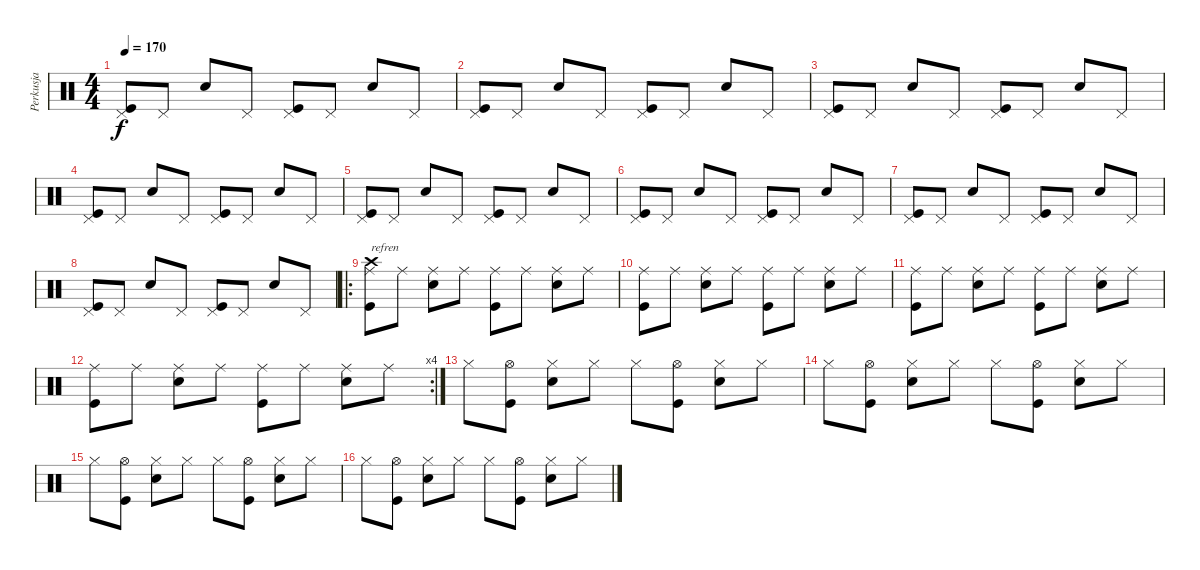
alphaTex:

\track ("Perkusja" "Perkusja") {instrument percussion}
\staff {score}
\articulation defaults
\ts (4 4)
\tempo 170
\clef neutral
\ks c
("Pedal Hi-Hat (hit)" "Kick (hit)").8{dy f} "Pedal Hi-Hat (hit)".8 "Electric Snare (hit)".8 "Pedal Hi-Hat (hit)".8 ("Pedal Hi-Hat (hit)" "Kick (hit)").8 "Pedal Hi-Hat (hit)".8 "Electric Snare (hit)".8 "Pedal Hi-Hat (hit)".8 |
("Pedal Hi-Hat (hit)" "Kick (hit)").8 "Pedal Hi-Hat (hit)".8 "Electric Snare (hit)".8 "Pedal Hi-Hat (hit)".8 ("Pedal Hi-Hat (hit)" "Kick (hit)").8 "Pedal Hi-Hat (hit)".8 "Electric Snare (hit)".8 "Pedal Hi-Hat (hit)".8 |
("Pedal Hi-Hat (hit)" "Kick (hit)").8 "Pedal Hi-Hat (hit)".8 "Electric Snare (hit)".8 "Pedal Hi-Hat (hit)".8 ("Pedal Hi-Hat (hit)" "Kick (hit)").8 "Pedal Hi-Hat (hit)".8 "Electric Snare (hit)".8 "Pedal Hi-Hat (hit)".8 |
("Pedal Hi-Hat (hit)" "Kick (hit)").8 "Pedal Hi-Hat (hit)".8 "Electric Snare (hit)".8 "Pedal Hi-Hat (hit)".8 ("Pedal Hi-Hat (hit)" "Kick (hit)").8 "Pedal Hi-Hat (hit)".8 "Electric Snare (hit)".8 "Pedal Hi-Hat (hit)".8 |
("Pedal Hi-Hat (hit)" "Kick (hit)").8 "Pedal Hi-Hat (hit)".8 "Electric Snare (hit)".8 "Pedal Hi-Hat (hit)".8 ("Pedal Hi-Hat (hit)" "Kick (hit)").8 "Pedal Hi-Hat (hit)".8 "Electric Snare (hit)".8 "Pedal Hi-Hat (hit)".8 |
("Pedal Hi-Hat (hit)" "Kick (hit)").8 "Pedal Hi-Hat (hit)".8 "Electric Snare (hit)".8 "Pedal Hi-Hat (hit)".8 ("Pedal Hi-Hat (hit)" "Kick (hit)").8 "Pedal Hi-Hat (hit)".8 "Electric Snare (hit)".8 "Pedal Hi-Hat (hit)".8 |
("Pedal Hi-Hat (hit)" "Kick (hit)").8 "Pedal Hi-Hat (hit)".8 "Electric Snare (hit)".8 "Pedal Hi-Hat (hit)".8 ("Pedal Hi-Hat (hit)" "Kick (hit)").8 "Pedal Hi-Hat (hit)".8 "Electric Snare (hit)".8 "Pedal Hi-Hat (hit)".8 |
("Pedal Hi-Hat (hit)" "Kick (hit)").8 "Pedal Hi-Hat (hit)".8 "Electric Snare (hit)".8 "Pedal Hi-Hat (hit)".8 ("Pedal Hi-Hat (hit)" "Kick (hit)").8 "Pedal Hi-Hat (hit)".8 "Electric Snare (hit)".8 "Pedal Hi-Hat (hit)".8 |
\ro
("Ride (middle)" "Crash high (hit)" "Kick (hit)").8{txt "refren"} "Ride (middle)".8 ("Ride (middle)" "Electric Snare (hit)").8 "Ride (middle)".8 ("Ride (middle)" "Kick (hit)").8 "Ride (middle)".8 ("Ride (middle)" "Electric Snare (hit)").8 "Ride (middle)".8 |
("Ride (middle)" "Kick (hit)").8 "Ride (middle)".8 ("Ride (middle)" "Electric Snare (hit)").8 "Ride (middle)".8 ("Ride (middle)" "Kick (hit)").8 "Ride (middle)".8 ("Ride (middle)" "Electric Snare (hit)").8 "Ride (middle)".8 |
("Ride (middle)" "Kick (hit)").8 "Ride (middle)".8 ("Ride (middle)" "Electric Snare (hit)").8 "Ride (middle)".8 ("Ride (middle)" "Kick (hit)").8 "Ride (middle)".8 ("Ride (middle)" "Electric Snare (hit)").8 "Ride (middle)".8 |
\rc 4
("Ride (middle)" "Kick (hit)").8 "Ride (middle)".8 ("Ride (middle)" "Electric Snare (hit)").8 "Ride (middle)".8 ("Ride (middle)" "Kick (hit)").8 "Ride (middle)".8 ("Ride (middle)" "Electric Snare (hit)").8 "Ride (middle)".8 |
"Hi-Hat (closed)".8 ("Hi-Hat (open)" "Kick (hit)").8 ("Hi-Hat (closed)" "Electric Snare (hit)").8 "Hi-Hat (closed)".8 "Hi-Hat (closed)".8 ("Hi-Hat (open)" "Kick (hit)").8 ("Hi-Hat (closed)" "Electric Snare (hit)").8 "Hi-Hat (closed)".8 |
"Hi-Hat (closed)".8 ("Hi-Hat (open)" "Kick (hit)").8 ("Hi-Hat (closed)" "Electric Snare (hit)").8 "Hi-Hat (closed)".8 "Hi-Hat (closed)".8 ("Hi-Hat (open)" "Kick (hit)").8 ("Hi-Hat (closed)" "Electric Snare (hit)").8 "Hi-Hat (closed)".8 |
"Hi-Hat (closed)".8 ("Hi-Hat (open)" "Kick (hit)").8 ("Hi-Hat (closed)" "Electric Snare (hit)").8 "Hi-Hat (closed)".8 "Hi-Hat (closed)".8 ("Hi-Hat (open)" "Kick (hit)").8 ("Hi-Hat (closed)" "Electric Snare (hit)").8 "Hi-Hat (closed)".8 |
"Hi-Hat (closed)".8 ("Hi-Hat (open)" "Kick (hit)").8 ("Hi-Hat (closed)" "Electric Snare (hit)").8 "Hi-Hat (closed)".8 "Hi-Hat (closed)".8 ("Hi-Hat (open)" "Kick (hit)").8 ("Hi-Hat (closed)" "Electric Snare (hit)").8 "Hi-Hat (closed)".8
